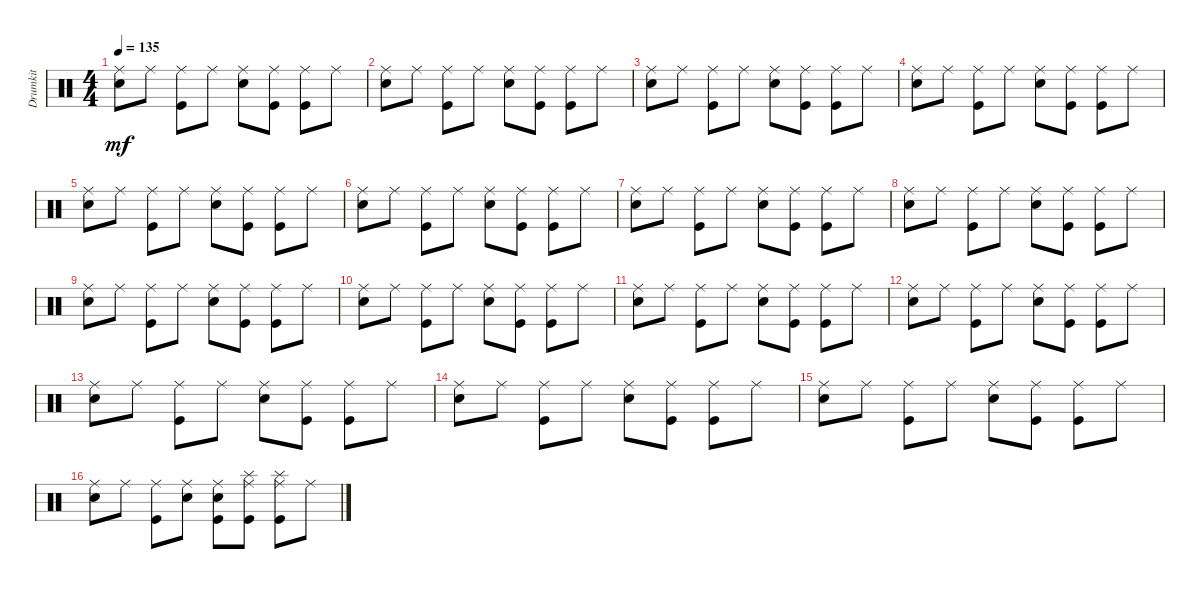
\track ("Drumkit" "Drumkit") {instrument percussion}
\staff {score}
\articulation defaults
\ts (4 4)
\tempo 135
\clef neutral
\ks c
("Snare (hit) 2" "Ride (middle)").8{dy mf} "Ride (middle)".8 ("Kick (hit)" "Ride (middle)").8 "Ride (middle)".8 ("Snare (hit) 2" "Ride (middle)").8 ("Kick (hit)" "Ride (middle)").8 ("Kick (hit)" "Ride (middle)").8 "Ride (middle)".8 |
("Snare (hit) 2" "Ride (middle)").8 "Ride (middle)".8 ("Kick (hit)" "Ride (middle)").8 "Ride (middle)".8 ("Snare (hit) 2" "Ride (middle)").8 ("Kick (hit)" "Ride (middle)").8 ("Kick (hit)" "Ride (middle)").8 "Ride (middle)".8 |
("Snare (hit) 2" "Ride (middle)").8 "Ride (middle)".8 ("Kick (hit)" "Ride (middle)").8 "Ride (middle)".8 ("Snare (hit) 2" "Ride (middle)").8 ("Kick (hit)" "Ride (middle)").8 ("Kick (hit)" "Ride (middle)").8 "Ride (middle)".8 |
("Snare (hit) 2" "Ride (middle)").8 "Ride (middle)".8 ("Kick (hit)" "Ride (middle)").8 "Ride (middle)".8 ("Snare (hit) 2" "Ride (middle)").8 ("Kick (hit)" "Ride (middle)").8 ("Kick (hit)" "Ride (middle)").8 "Ride (middle)".8 |
("Snare (hit) 2" "Ride (middle)").8 "Ride (middle)".8 ("Kick (hit)" "Ride (middle)").8 "Ride (middle)".8 ("Snare (hit) 2" "Ride (middle)").8 ("Kick (hit)" "Ride (middle)").8 ("Kick (hit)" "Ride (middle)").8 "Ride (middle)".8 |
("Snare (hit) 2" "Ride (middle)").8 "Ride (middle)".8 ("Kick (hit)" "Ride (middle)").8 "Ride (middle)".8 ("Snare (hit) 2" "Ride (middle)").8 ("Kick (hit)" "Ride (middle)").8 ("Kick (hit)" "Ride (middle)").8 "Ride (middle)".8 |
("Snare (hit) 2" "Ride (middle)").8 "Ride (middle)".8 ("Kick (hit)" "Ride (middle)").8 "Ride (middle)".8 ("Snare (hit) 2" "Ride (middle)").8 ("Kick (hit)" "Ride (middle)").8 ("Kick (hit)" "Ride (middle)").8 "Ride (middle)".8 |
("Snare (hit) 2" "Ride (middle)").8 "Ride (middle)".8 ("Kick (hit)" "Ride (middle)").8 "Ride (middle)".8 ("Snare (hit) 2" "Ride (middle)").8 ("Kick (hit)" "Ride (middle)").8 ("Kick (hit)" "Ride (middle)").8 "Ride (middle)".8 |
("Snare (hit) 2" "Ride (middle)").8 "Ride (middle)".8 ("Kick (hit)" "Ride (middle)").8 "Ride (middle)".8 ("Snare (hit) 2" "Ride (middle)").8 ("Kick (hit)" "Ride (middle)").8 ("Kick (hit)" "Ride (middle)").8 "Ride (middle)".8 |
("Snare (hit) 2" "Ride (middle)").8 "Ride (middle)".8 ("Kick (hit)" "Ride (middle)").8 "Ride (middle)".8 ("Snare (hit) 2" "Ride (middle)").8 ("Kick (hit)" "Ride (middle)").8 ("Kick (hit)" "Ride (middle)").8 "Ride (middle)".8 |
("Snare (hit) 2" "Ride (middle)").8 "Ride (middle)".8 ("Kick (hit)" "Ride (middle)").8 "Ride (middle)".8 ("Snare (hit) 2" "Ride (middle)").8 ("Kick (hit)" "Ride (middle)").8 ("Kick (hit)" "Ride (middle)").8 "Ride (middle)".8 |
("Snare (hit) 2" "Ride (middle)").8 "Ride (middle)".8 ("Kick (hit)" "Ride (middle)").8 "Ride (middle)".8 ("Snare (hit) 2" "Ride (middle)").8 ("Kick (hit)" "Ride (middle)").8 ("Kick (hit)" "Ride (middle)").8 "Ride (middle)".8 |
("Snare (hit) 2" "Ride (middle)").8 "Ride (middle)".8 ("Kick (hit)" "Ride (middle)").8 "Ride (middle)".8 ("Snare (hit) 2" "Ride (middle)").8 ("Kick (hit)" "Ride (middle)").8 ("Kick (hit)" "Ride (middle)").8 "Ride (middle)".8 |
("Snare (hit) 2" "Ride (middle)").8 "Ride (middle)".8 ("Kick (hit)" "Ride (middle)").8 "Ride (middle)".8 ("Snare (hit) 2" "Ride (middle)").8 ("Kick (hit)" "Ride (middle)").8 ("Kick (hit)" "Ride (middle)").8 "Ride (middle)".8 |
("Snare (hit) 2" "Ride (middle)").8 "Ride (middle)".8 ("Kick (hit)" "Ride (middle)").8 "Ride (middle)".8 ("Snare (hit) 2" "Ride (middle)").8 ("Kick (hit)" "Ride (middle)").8 ("Kick (hit)" "Ride (middle)").8 "Ride (middle)".8 |
("Snare (hit) 2" "Ride (middle)").8 "Ride (middle)".8 ("Kick (hit)" "Ride (middle)").8 ("Snare (hit) 2" "Ride (middle)").8 ("Snare (hit) 2" "Ride (middle)" "Kick (hit)").8 ("Ride (middle)" "Kick (hit)" "Splash (hit)").8 ("Ride (middle)" "Kick (hit)" "Splash (hit)").8 "Ride (middle)".8
